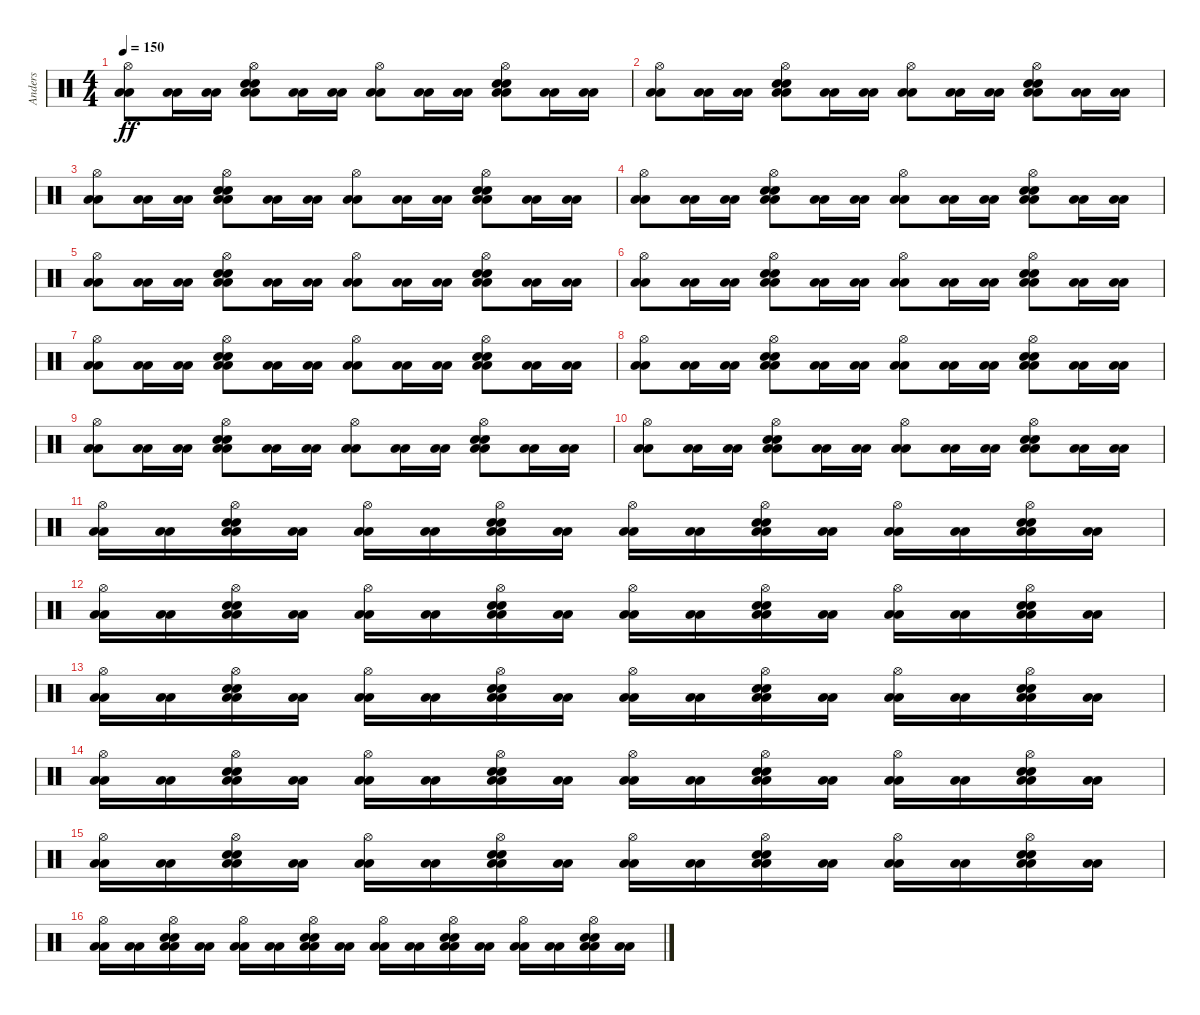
\track ("Anders" "Anders") {instrument percussion}
\staff {score}
\articulation defaults
\ts (4 4)
\tempo 150
\clef neutral
\ks c
("Hi-Hat (open)" "Low Floor Tom (hit)" "Low Floor Tom (hit)").8{dy ff} ("Low Floor Tom (hit)" "Low Floor Tom (hit)").16 ("Low Floor Tom (hit)" "Low Floor Tom (hit)").16 ("Hi-Hat (open)" "Electric Snare (hit)" "Electric Snare (hit)" "Low Floor Tom (hit)" "Low Floor Tom (hit)").8 ("Low Floor Tom (hit)" "Low Floor Tom (hit)").16 ("Low Floor Tom (hit)" "Low Floor Tom (hit)").16 ("Hi-Hat (open)" "Low Floor Tom (hit)" "Low Floor Tom (hit)").8 ("Low Floor Tom (hit)" "Low Floor Tom (hit)").16 ("Low Floor Tom (hit)" "Low Floor Tom (hit)").16 ("Hi-Hat (open)" "Electric Snare (hit)" "Electric Snare (hit)" "Low Floor Tom (hit)" "Low Floor Tom (hit)").8 ("Low Floor Tom (hit)" "Low Floor Tom (hit)").16 ("Low Floor Tom (hit)" "Low Floor Tom (hit)").16 |
("Hi-Hat (open)" "Low Floor Tom (hit)" "Low Floor Tom (hit)").8 ("Low Floor Tom (hit)" "Low Floor Tom (hit)").16 ("Low Floor Tom (hit)" "Low Floor Tom (hit)").16 ("Hi-Hat (open)" "Electric Snare (hit)" "Electric Snare (hit)" "Low Floor Tom (hit)" "Low Floor Tom (hit)").8 ("Low Floor Tom (hit)" "Low Floor Tom (hit)").16 ("Low Floor Tom (hit)" "Low Floor Tom (hit)").16 ("Hi-Hat (open)" "Low Floor Tom (hit)" "Low Floor Tom (hit)").8 ("Low Floor Tom (hit)" "Low Floor Tom (hit)").16 ("Low Floor Tom (hit)" "Low Floor Tom (hit)").16 ("Hi-Hat (open)" "Electric Snare (hit)" "Electric Snare (hit)" "Low Floor Tom (hit)" "Low Floor Tom (hit)").8 ("Low Floor Tom (hit)" "Low Floor Tom (hit)").16 ("Low Floor Tom (hit)" "Low Floor Tom (hit)").16 |
("Hi-Hat (open)" "Low Floor Tom (hit)" "Low Floor Tom (hit)").8 ("Low Floor Tom (hit)" "Low Floor Tom (hit)").16 ("Low Floor Tom (hit)" "Low Floor Tom (hit)").16 ("Hi-Hat (open)" "Electric Snare (hit)" "Electric Snare (hit)" "Low Floor Tom (hit)" "Low Floor Tom (hit)").8 ("Low Floor Tom (hit)" "Low Floor Tom (hit)").16 ("Low Floor Tom (hit)" "Low Floor Tom (hit)").16 ("Hi-Hat (open)" "Low Floor Tom (hit)" "Low Floor Tom (hit)").8 ("Low Floor Tom (hit)" "Low Floor Tom (hit)").16 ("Low Floor Tom (hit)" "Low Floor Tom (hit)").16 ("Hi-Hat (open)" "Electric Snare (hit)" "Electric Snare (hit)" "Low Floor Tom (hit)" "Low Floor Tom (hit)").8 ("Low Floor Tom (hit)" "Low Floor Tom (hit)").16 ("Low Floor Tom (hit)" "Low Floor Tom (hit)").16 |
("Hi-Hat (open)" "Low Floor Tom (hit)" "Low Floor Tom (hit)").8 ("Low Floor Tom (hit)" "Low Floor Tom (hit)").16 ("Low Floor Tom (hit)" "Low Floor Tom (hit)").16 ("Hi-Hat (open)" "Electric Snare (hit)" "Electric Snare (hit)" "Low Floor Tom (hit)" "Low Floor Tom (hit)").8 ("Low Floor Tom (hit)" "Low Floor Tom (hit)").16 ("Low Floor Tom (hit)" "Low Floor Tom (hit)").16 ("Hi-Hat (open)" "Low Floor Tom (hit)" "Low Floor Tom (hit)").8 ("Low Floor Tom (hit)" "Low Floor Tom (hit)").16 ("Low Floor Tom (hit)" "Low Floor Tom (hit)").16 ("Hi-Hat (open)" "Electric Snare (hit)" "Electric Snare (hit)" "Low Floor Tom (hit)" "Low Floor Tom (hit)").8 ("Low Floor Tom (hit)" "Low Floor Tom (hit)").16 ("Low Floor Tom (hit)" "Low Floor Tom (hit)").16 |
("Hi-Hat (open)" "Low Floor Tom (hit)" "Low Floor Tom (hit)").8 ("Low Floor Tom (hit)" "Low Floor Tom (hit)").16 ("Low Floor Tom (hit)" "Low Floor Tom (hit)").16 ("Hi-Hat (open)" "Electric Snare (hit)" "Electric Snare (hit)" "Low Floor Tom (hit)" "Low Floor Tom (hit)").8 ("Low Floor Tom (hit)" "Low Floor Tom (hit)").16 ("Low Floor Tom (hit)" "Low Floor Tom (hit)").16 ("Hi-Hat (open)" "Low Floor Tom (hit)" "Low Floor Tom (hit)").8 ("Low Floor Tom (hit)" "Low Floor Tom (hit)").16 ("Low Floor Tom (hit)" "Low Floor Tom (hit)").16 ("Hi-Hat (open)" "Electric Snare (hit)" "Electric Snare (hit)" "Low Floor Tom (hit)" "Low Floor Tom (hit)").8 ("Low Floor Tom (hit)" "Low Floor Tom (hit)").16 ("Low Floor Tom (hit)" "Low Floor Tom (hit)").16 |
("Hi-Hat (open)" "Low Floor Tom (hit)" "Low Floor Tom (hit)").8 ("Low Floor Tom (hit)" "Low Floor Tom (hit)").16 ("Low Floor Tom (hit)" "Low Floor Tom (hit)").16 ("Hi-Hat (open)" "Electric Snare (hit)" "Electric Snare (hit)" "Low Floor Tom (hit)" "Low Floor Tom (hit)").8 ("Low Floor Tom (hit)" "Low Floor Tom (hit)").16 ("Low Floor Tom (hit)" "Low Floor Tom (hit)").16 ("Hi-Hat (open)" "Low Floor Tom (hit)" "Low Floor Tom (hit)").8 ("Low Floor Tom (hit)" "Low Floor Tom (hit)").16 ("Low Floor Tom (hit)" "Low Floor Tom (hit)").16 ("Hi-Hat (open)" "Electric Snare (hit)" "Electric Snare (hit)" "Low Floor Tom (hit)" "Low Floor Tom (hit)").8 ("Low Floor Tom (hit)" "Low Floor Tom (hit)").16 ("Low Floor Tom (hit)" "Low Floor Tom (hit)").16 |
("Hi-Hat (open)" "Low Floor Tom (hit)" "Low Floor Tom (hit)").8 ("Low Floor Tom (hit)" "Low Floor Tom (hit)").16 ("Low Floor Tom (hit)" "Low Floor Tom (hit)").16 ("Hi-Hat (open)" "Electric Snare (hit)" "Electric Snare (hit)" "Low Floor Tom (hit)" "Low Floor Tom (hit)").8 ("Low Floor Tom (hit)" "Low Floor Tom (hit)").16 ("Low Floor Tom (hit)" "Low Floor Tom (hit)").16 ("Hi-Hat (open)" "Low Floor Tom (hit)" "Low Floor Tom (hit)").8 ("Low Floor Tom (hit)" "Low Floor Tom (hit)").16 ("Low Floor Tom (hit)" "Low Floor Tom (hit)").16 ("Hi-Hat (open)" "Electric Snare (hit)" "Electric Snare (hit)" "Low Floor Tom (hit)" "Low Floor Tom (hit)").8 ("Low Floor Tom (hit)" "Low Floor Tom (hit)").16 ("Low Floor Tom (hit)" "Low Floor Tom (hit)").16 |
("Hi-Hat (open)" "Low Floor Tom (hit)" "Low Floor Tom (hit)").8 ("Low Floor Tom (hit)" "Low Floor Tom (hit)").16 ("Low Floor Tom (hit)" "Low Floor Tom (hit)").16 ("Hi-Hat (open)" "Electric Snare (hit)" "Electric Snare (hit)" "Low Floor Tom (hit)" "Low Floor Tom (hit)").8 ("Low Floor Tom (hit)" "Low Floor Tom (hit)").16 ("Low Floor Tom (hit)" "Low Floor Tom (hit)").16 ("Hi-Hat (open)" "Low Floor Tom (hit)" "Low Floor Tom (hit)").8 ("Low Floor Tom (hit)" "Low Floor Tom (hit)").16 ("Low Floor Tom (hit)" "Low Floor Tom (hit)").16 ("Hi-Hat (open)" "Electric Snare (hit)" "Electric Snare (hit)" "Low Floor Tom (hit)" "Low Floor Tom (hit)").8 ("Low Floor Tom (hit)" "Low Floor Tom (hit)").16 ("Low Floor Tom (hit)" "Low Floor Tom (hit)").16 |
("Hi-Hat (open)" "Low Floor Tom (hit)" "Low Floor Tom (hit)").8 ("Low Floor Tom (hit)" "Low Floor Tom (hit)").16 ("Low Floor Tom (hit)" "Low Floor Tom (hit)").16 ("Hi-Hat (open)" "Electric Snare (hit)" "Electric Snare (hit)" "Low Floor Tom (hit)" "Low Floor Tom (hit)").8 ("Low Floor Tom (hit)" "Low Floor Tom (hit)").16 ("Low Floor Tom (hit)" "Low Floor Tom (hit)").16 ("Hi-Hat (open)" "Low Floor Tom (hit)" "Low Floor Tom (hit)").8 ("Low Floor Tom (hit)" "Low Floor Tom (hit)").16 ("Low Floor Tom (hit)" "Low Floor Tom (hit)").16 ("Hi-Hat (open)" "Electric Snare (hit)" "Electric Snare (hit)" "Low Floor Tom (hit)" "Low Floor Tom (hit)").8 ("Low Floor Tom (hit)" "Low Floor Tom (hit)").16 ("Low Floor Tom (hit)" "Low Floor Tom (hit)").16 |
("Hi-Hat (open)" "Low Floor Tom (hit)" "Low Floor Tom (hit)").8 ("Low Floor Tom (hit)" "Low Floor Tom (hit)").16 ("Low Floor Tom (hit)" "Low Floor Tom (hit)").16 ("Hi-Hat (open)" "Electric Snare (hit)" "Electric Snare (hit)" "Low Floor Tom (hit)" "Low Floor Tom (hit)").8 ("Low Floor Tom (hit)" "Low Floor Tom (hit)").16 ("Low Floor Tom (hit)" "Low Floor Tom (hit)").16 ("Hi-Hat (open)" "Low Floor Tom (hit)" "Low Floor Tom (hit)").8 ("Low Floor Tom (hit)" "Low Floor Tom (hit)").16 ("Low Floor Tom (hit)" "Low Floor Tom (hit)").16 ("Hi-Hat (open)" "Electric Snare (hit)" "Electric Snare (hit)" "Low Floor Tom (hit)" "Low Floor Tom (hit)").8 ("Low Floor Tom (hit)" "Low Floor Tom (hit)").16 ("Low Floor Tom (hit)" "Low Floor Tom (hit)").16 |
("Hi-Hat (open)" "Low Floor Tom (hit)" "Low Floor Tom (hit)").16 ("Low Floor Tom (hit)" "Low Floor Tom (hit)").16 ("Hi-Hat (open)" "Electric Snare (hit)" "Electric Snare (hit)" "Low Floor Tom (hit)" "Low Floor Tom (hit)").16 ("Low Floor Tom (hit)" "Low Floor Tom (hit)").16 ("Hi-Hat (open)" "Low Floor Tom (hit)" "Low Floor Tom (hit)").16 ("Low Floor Tom (hit)" "Low Floor Tom (hit)").16 ("Hi-Hat (open)" "Electric Snare (hit)" "Electric Snare (hit)" "Low Floor Tom (hit)" "Low Floor Tom (hit)").16 ("Low Floor Tom (hit)" "Low Floor Tom (hit)").16 ("Hi-Hat (open)" "Low Floor Tom (hit)" "Low Floor Tom (hit)").16 ("Low Floor Tom (hit)" "Low Floor Tom (hit)").16 ("Hi-Hat (open)" "Electric Snare (hit)" "Electric Snare (hit)" "Low Floor Tom (hit)" "Low Floor Tom (hit)").16 ("Low Floor Tom (hit)" "Low Floor Tom (hit)").16 ("Hi-Hat (open)" "Low Floor Tom (hit)" "Low Floor Tom (hit)").16 ("Low Floor Tom (hit)" "Low Floor Tom (hit)").16 ("Hi-Hat (open)" "Electric Snare (hit)" "Electric Snare (hit)" "Low Floor Tom (hit)" "Low Floor Tom (hit)").16 ("Low Floor Tom (hit)" "Low Floor Tom (hit)").16 |
("Hi-Hat (open)" "Low Floor Tom (hit)" "Low Floor Tom (hit)").16 ("Low Floor Tom (hit)" "Low Floor Tom (hit)").16 ("Hi-Hat (open)" "Electric Snare (hit)" "Electric Snare (hit)" "Low Floor Tom (hit)" "Low Floor Tom (hit)").16 ("Low Floor Tom (hit)" "Low Floor Tom (hit)").16 ("Hi-Hat (open)" "Low Floor Tom (hit)" "Low Floor Tom (hit)").16 ("Low Floor Tom (hit)" "Low Floor Tom (hit)").16 ("Hi-Hat (open)" "Electric Snare (hit)" "Electric Snare (hit)" "Low Floor Tom (hit)" "Low Floor Tom (hit)").16 ("Low Floor Tom (hit)" "Low Floor Tom (hit)").16 ("Hi-Hat (open)" "Low Floor Tom (hit)" "Low Floor Tom (hit)").16 ("Low Floor Tom (hit)" "Low Floor Tom (hit)").16 ("Hi-Hat (open)" "Electric Snare (hit)" "Electric Snare (hit)" "Low Floor Tom (hit)" "Low Floor Tom (hit)").16 ("Low Floor Tom (hit)" "Low Floor Tom (hit)").16 ("Hi-Hat (open)" "Low Floor Tom (hit)" "Low Floor Tom (hit)").16 ("Low Floor Tom (hit)" "Low Floor Tom (hit)").16 ("Hi-Hat (open)" "Electric Snare (hit)" "Electric Snare (hit)" "Low Floor Tom (hit)" "Low Floor Tom (hit)").16 ("Low Floor Tom (hit)" "Low Floor Tom (hit)").16 |
("Hi-Hat (open)" "Low Floor Tom (hit)" "Low Floor Tom (hit)").16 ("Low Floor Tom (hit)" "Low Floor Tom (hit)").16 ("Hi-Hat (open)" "Electric Snare (hit)" "Electric Snare (hit)" "Low Floor Tom (hit)" "Low Floor Tom (hit)").16 ("Low Floor Tom (hit)" "Low Floor Tom (hit)").16 ("Hi-Hat (open)" "Low Floor Tom (hit)" "Low Floor Tom (hit)").16 ("Low Floor Tom (hit)" "Low Floor Tom (hit)").16 ("Hi-Hat (open)" "Electric Snare (hit)" "Electric Snare (hit)" "Low Floor Tom (hit)" "Low Floor Tom (hit)").16 ("Low Floor Tom (hit)" "Low Floor Tom (hit)").16 ("Hi-Hat (open)" "Low Floor Tom (hit)" "Low Floor Tom (hit)").16 ("Low Floor Tom (hit)" "Low Floor Tom (hit)").16 ("Hi-Hat (open)" "Electric Snare (hit)" "Electric Snare (hit)" "Low Floor Tom (hit)" "Low Floor Tom (hit)").16 ("Low Floor Tom (hit)" "Low Floor Tom (hit)").16 ("Hi-Hat (open)" "Low Floor Tom (hit)" "Low Floor Tom (hit)").16 ("Low Floor Tom (hit)" "Low Floor Tom (hit)").16 ("Hi-Hat (open)" "Electric Snare (hit)" "Electric Snare (hit)" "Low Floor Tom (hit)" "Low Floor Tom (hit)").16 ("Low Floor Tom (hit)" "Low Floor Tom (hit)").16 |
("Hi-Hat (open)" "Low Floor Tom (hit)" "Low Floor Tom (hit)").16 ("Low Floor Tom (hit)" "Low Floor Tom (hit)").16 ("Hi-Hat (open)" "Electric Snare (hit)" "Electric Snare (hit)" "Low Floor Tom (hit)" "Low Floor Tom (hit)").16 ("Low Floor Tom (hit)" "Low Floor Tom (hit)").16 ("Hi-Hat (open)" "Low Floor Tom (hit)" "Low Floor Tom (hit)").16 ("Low Floor Tom (hit)" "Low Floor Tom (hit)").16 ("Hi-Hat (open)" "Electric Snare (hit)" "Electric Snare (hit)" "Low Floor Tom (hit)" "Low Floor Tom (hit)").16 ("Low Floor Tom (hit)" "Low Floor Tom (hit)").16 ("Hi-Hat (open)" "Low Floor Tom (hit)" "Low Floor Tom (hit)").16 ("Low Floor Tom (hit)" "Low Floor Tom (hit)").16 ("Hi-Hat (open)" "Electric Snare (hit)" "Electric Snare (hit)" "Low Floor Tom (hit)" "Low Floor Tom (hit)").16 ("Low Floor Tom (hit)" "Low Floor Tom (hit)").16 ("Hi-Hat (open)" "Low Floor Tom (hit)" "Low Floor Tom (hit)").16 ("Low Floor Tom (hit)" "Low Floor Tom (hit)").16 ("Hi-Hat (open)" "Electric Snare (hit)" "Electric Snare (hit)" "Low Floor Tom (hit)" "Low Floor Tom (hit)").16 ("Low Floor Tom (hit)" "Low Floor Tom (hit)").16 |
("Hi-Hat (open)" "Low Floor Tom (hit)" "Low Floor Tom (hit)").16 ("Low Floor Tom (hit)" "Low Floor Tom (hit)").16 ("Hi-Hat (open)" "Electric Snare (hit)" "Electric Snare (hit)" "Low Floor Tom (hit)" "Low Floor Tom (hit)").16 ("Low Floor Tom (hit)" "Low Floor Tom (hit)").16 ("Hi-Hat (open)" "Low Floor Tom (hit)" "Low Floor Tom (hit)").16 ("Low Floor Tom (hit)" "Low Floor Tom (hit)").16 ("Hi-Hat (open)" "Electric Snare (hit)" "Electric Snare (hit)" "Low Floor Tom (hit)" "Low Floor Tom (hit)").16 ("Low Floor Tom (hit)" "Low Floor Tom (hit)").16 ("Hi-Hat (open)" "Low Floor Tom (hit)" "Low Floor Tom (hit)").16 ("Low Floor Tom (hit)" "Low Floor Tom (hit)").16 ("Hi-Hat (open)" "Electric Snare (hit)" "Electric Snare (hit)" "Low Floor Tom (hit)" "Low Floor Tom (hit)").16 ("Low Floor Tom (hit)" "Low Floor Tom (hit)").16 ("Hi-Hat (open)" "Low Floor Tom (hit)" "Low Floor Tom (hit)").16 ("Low Floor Tom (hit)" "Low Floor Tom (hit)").16 ("Hi-Hat (open)" "Electric Snare (hit)" "Electric Snare (hit)" "Low Floor Tom (hit)" "Low Floor Tom (hit)").16 ("Low Floor Tom (hit)" "Low Floor Tom (hit)").16 |
("Hi-Hat (open)" "Low Floor Tom (hit)" "Low Floor Tom (hit)").16 ("Low Floor Tom (hit)" "Low Floor Tom (hit)").16 ("Hi-Hat (open)" "Electric Snare (hit)" "Electric Snare (hit)" "Low Floor Tom (hit)" "Low Floor Tom (hit)").16 ("Low Floor Tom (hit)" "Low Floor Tom (hit)").16 ("Hi-Hat (open)" "Low Floor Tom (hit)" "Low Floor Tom (hit)").16 ("Low Floor Tom (hit)" "Low Floor Tom (hit)").16 ("Hi-Hat (open)" "Electric Snare (hit)" "Electric Snare (hit)" "Low Floor Tom (hit)" "Low Floor Tom (hit)").16 ("Low Floor Tom (hit)" "Low Floor Tom (hit)").16 ("Hi-Hat (open)" "Low Floor Tom (hit)" "Low Floor Tom (hit)").16 ("Low Floor Tom (hit)" "Low Floor Tom (hit)").16 ("Hi-Hat (open)" "Electric Snare (hit)" "Electric Snare (hit)" "Low Floor Tom (hit)" "Low Floor Tom (hit)").16 ("Low Floor Tom (hit)" "Low Floor Tom (hit)").16 ("Hi-Hat (open)" "Low Floor Tom (hit)" "Low Floor Tom (hit)").16 ("Low Floor Tom (hit)" "Low Floor Tom (hit)").16 ("Hi-Hat (open)" "Electric Snare (hit)" "Electric Snare (hit)" "Low Floor Tom (hit)" "Low Floor Tom (hit)").16 ("Low Floor Tom (hit)" "Low Floor Tom (hit)").16
